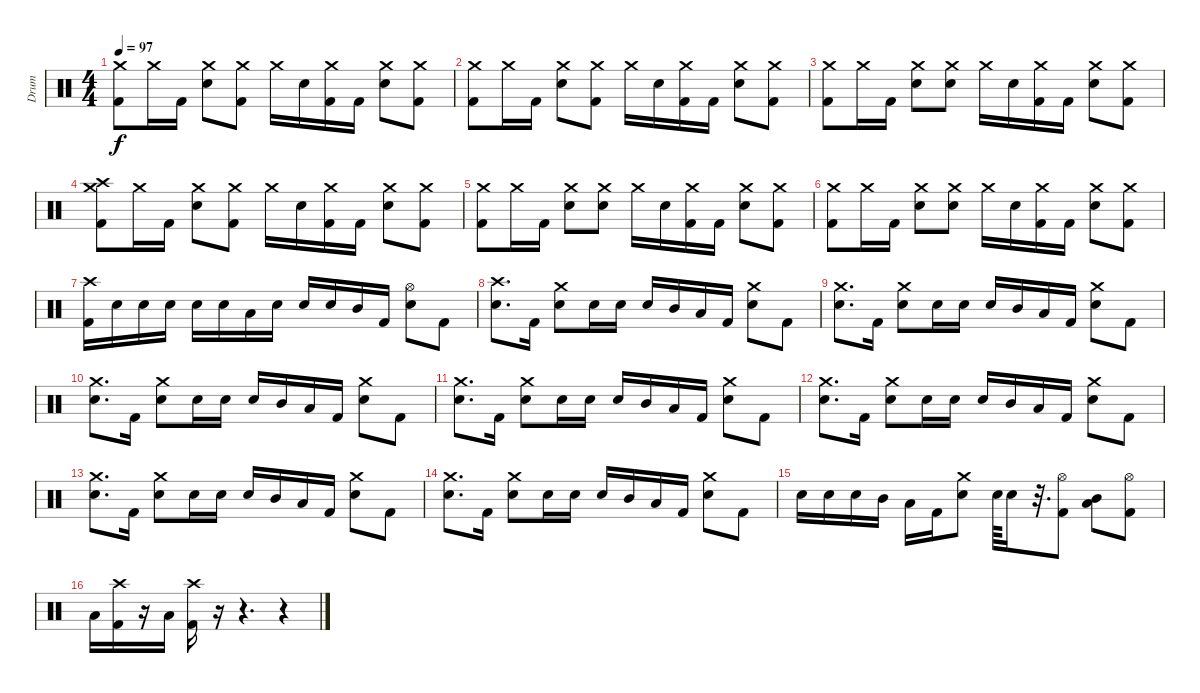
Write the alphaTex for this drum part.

\track ("Drum" "Drum") {instrument percussion}
\staff {score}
\articulation defaults
\ts (4 4)
\tempo 97
\clef neutral
\ks c
("Crash medium (hit)" "Kick (hit) 2").8{dy f} "Crash medium (hit)".16 "Kick (hit) 2".16 ("Crash medium (hit)" "Snare (hit) 2").8 ("Crash medium (hit)" "Kick (hit) 2").8 "Crash medium (hit)".16 "Snare (hit) 2".16 ("Crash medium (hit)" "Kick (hit) 2").16 "Kick (hit) 2".16 ("Crash medium (hit)" "Snare (hit) 2").8 ("Crash medium (hit)" "Kick (hit) 2").8 |
("Crash medium (hit)" "Kick (hit) 2").8 "Crash medium (hit)".16 "Kick (hit) 2".16 ("Crash medium (hit)" "Snare (hit) 2").8 ("Crash medium (hit)" "Kick (hit) 2").8 "Crash medium (hit)".16 "Snare (hit) 2".16 ("Crash medium (hit)" "Kick (hit) 2").16 "Kick (hit) 2".16 ("Crash medium (hit)" "Snare (hit) 2").8 ("Crash medium (hit)" "Kick (hit) 2").8 |
("Crash medium (hit)" "Kick (hit) 2").8 "Crash medium (hit)".16 "Kick (hit) 2".16 ("Crash medium (hit)" "Snare (hit) 2").8 ("Crash medium (hit)" "Snare (hit) 2").8 "Crash medium (hit)".16 "Snare (hit) 2".16 ("Crash medium (hit)" "Kick (hit) 2").16 "Kick (hit) 2".16 ("Crash medium (hit)" "Snare (hit) 2").8 ("Crash medium (hit)" "Kick (hit) 2").8 |
("Crash high (hit)" "Crash medium (hit)" "Kick (hit) 2").8 "Crash medium (hit)".16 "Kick (hit) 2".16 ("Crash medium (hit)" "Snare (hit) 2").8 ("Crash medium (hit)" "Kick (hit) 2").8 "Crash medium (hit)".16 "Snare (hit) 2".16 ("Crash medium (hit)" "Kick (hit) 2").16 "Kick (hit) 2".16 ("Crash medium (hit)" "Snare (hit) 2").8 ("Crash medium (hit)" "Kick (hit) 2").8 |
("Crash medium (hit)" "Kick (hit) 2").8 "Crash medium (hit)".16 "Kick (hit) 2".16 ("Crash medium (hit)" "Snare (hit) 2").8 ("Crash medium (hit)" "Snare (hit) 2").8 "Crash medium (hit)".16 "Snare (hit) 2".16 ("Crash medium (hit)" "Kick (hit) 2").16 "Kick (hit) 2".16 ("Crash medium (hit)" "Snare (hit) 2").8 ("Crash medium (hit)" "Kick (hit) 2").8 |
("Crash medium (hit)" "Kick (hit) 2").8 "Crash medium (hit)".16 "Kick (hit) 2".16 ("Crash medium (hit)" "Snare (hit) 2").8 ("Crash medium (hit)" "Snare (hit) 2").8 "Crash medium (hit)".16 "Snare (hit) 2".16 ("Crash medium (hit)" "Kick (hit) 2").16 "Kick (hit) 2".16 ("Crash medium (hit)" "Snare (hit) 2").8 ("Crash medium (hit)" "Kick (hit) 2").8 |
("Crash high (hit)" "Kick (hit) 2").16 "Snare (hit) 2".16 "Snare (hit) 2".16 "Snare (hit) 2".16 "Snare (hit) 2".16 "Snare (hit) 2".16 "Low Tom (hit)".16 "Snare (hit) 2".16 "Snare (hit) 2".16 "Snare (hit) 2".16 "Mid Tom (hit)".16 "Kick (hit) 2".16 ("Hi-Hat (open)" "Snare (hit) 2").8 "Kick (hit) 2".8 |
("Crash high (hit)" "Snare (hit) 2").8{d} "Kick (hit) 2".16 ("Crash medium (hit)" "Snare (hit) 2").8 "Snare (hit) 2".16 "Snare (hit) 2".16 "Snare (hit) 2".16 "Mid Tom (hit)".16 "Low Tom (hit)".16 "Kick (hit) 2".16 ("Crash medium (hit)" "Snare (hit) 2").8 "Kick (hit) 2".8 |
("Crash medium (hit)" "Snare (hit) 2").8{d} "Kick (hit) 2".16 ("Crash medium (hit)" "Snare (hit) 2").8 "Snare (hit) 2".16 "Snare (hit) 2".16 "Snare (hit) 2".16 "Mid Tom (hit)".16 "Low Tom (hit)".16 "Kick (hit) 2".16 ("Crash medium (hit)" "Snare (hit) 2").8 "Kick (hit) 2".8 |
("Crash medium (hit)" "Snare (hit) 2").8{d} "Kick (hit) 2".16 ("Crash medium (hit)" "Snare (hit) 2").8 "Snare (hit) 2".16 "Snare (hit) 2".16 "Snare (hit) 2".16 "Mid Tom (hit)".16 "Low Tom (hit)".16 "Kick (hit) 2".16 ("Crash medium (hit)" "Snare (hit) 2").8 "Kick (hit) 2".8 |
("Crash medium (hit)" "Snare (hit) 2").8{d} "Kick (hit) 2".16 ("Crash medium (hit)" "Snare (hit) 2").8 "Snare (hit) 2".16 "Snare (hit) 2".16 "Snare (hit) 2".16 "Mid Tom (hit)".16 "Low Tom (hit)".16 "Kick (hit) 2".16 ("Crash medium (hit)" "Snare (hit) 2").8 "Kick (hit) 2".8 |
("Crash medium (hit)" "Snare (hit) 2").8{d} "Kick (hit) 2".16 ("Crash medium (hit)" "Snare (hit) 2").8 "Snare (hit) 2".16 "Snare (hit) 2".16 "Snare (hit) 2".16 "Mid Tom (hit)".16 "Low Tom (hit)".16 "Kick (hit) 2".16 ("Crash medium (hit)" "Snare (hit) 2").8 "Kick (hit) 2".8 |
("Crash medium (hit)" "Snare (hit) 2").8{d} "Kick (hit) 2".16 ("Crash medium (hit)" "Snare (hit) 2").8 "Snare (hit) 2".16 "Snare (hit) 2".16 "Snare (hit) 2".16 "Mid Tom (hit)".16 "Low Tom (hit)".16 "Kick (hit) 2".16 ("Crash medium (hit)" "Snare (hit) 2").8 "Kick (hit) 2".8 |
("Crash medium (hit)" "Snare (hit) 2").8{d} "Kick (hit) 2".16 ("Crash medium (hit)" "Snare (hit) 2").8 "Snare (hit) 2".16 "Snare (hit) 2".16 "Snare (hit) 2".16 "Mid Tom (hit)".16 "Low Tom (hit)".16 "Kick (hit) 2".16 ("Crash medium (hit)" "Snare (hit) 2").8 "Kick (hit) 2".8 |
"Snare (hit) 2".16 "Snare (hit) 2".16 "Snare (hit) 2".16 "Mid Tom (hit)".16 "Low Tom (hit)".16 "Kick (hit) 2".16 ("Crash medium (hit)" "Snare (hit) 2").8 "Snare (hit) 2".64 "Snare (hit) 2".16 r.32{d} ("Hi-Hat (open)" "Kick (hit) 2").8 ("Low Tom (hit)" "Mid Tom (hit)").8 ("Hi-Hat (open)" "Kick (hit) 2").8 |
"Low Tom (hit)".16 ("Crash high (hit)" "Kick (hit) 2").16 r.16 "Low Tom (hit)".16 ("Crash high (hit)" "Kick (hit) 2").16 r.16 r.4{d} r.4
